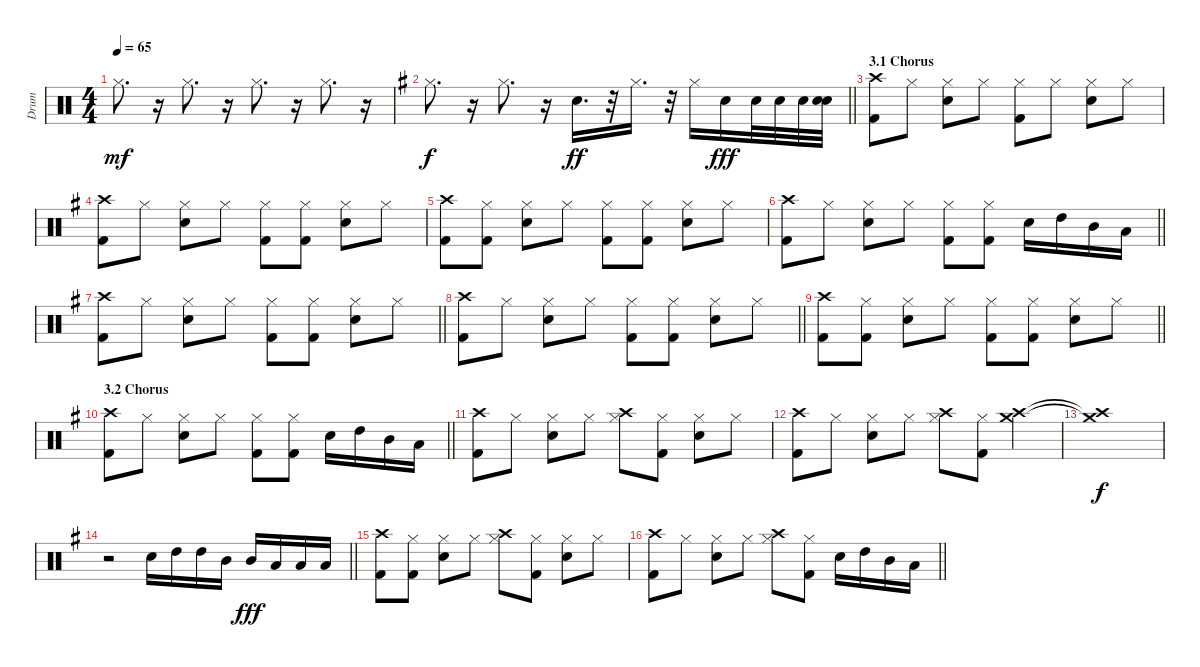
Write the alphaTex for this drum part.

\track ("Drum" "Drum") {instrument percussion}
\staff {score}
\articulation defaults
\ts (4 4)
\tempo 65
\clef neutral
\ks c "Hi-Hat (closed)".8{d dy mf}
r.16 "Hi-Hat (closed)".8{d} r.16 "Hi-Hat (closed)".8{d} r.16 "Hi-Hat (closed)".8{d} r.16 |
\barLineRight lightlight
\ks eminor "Hi-Hat (closed)".8{d dy f}
r.16 "Hi-Hat (closed)".8{d} r.16 "Electric Snare (hit)".16{d dy ff} r.32 "Hi-Hat (closed)".16{d} r.32 "Hi-Hat (closed)".16 "Electric Snare (hit)".16{dy fff} "Snare (hit) 2".32 "Electric Snare (hit)".32 "Snare (hit) 2".32 ("Electric Snare (hit)" "Snare (hit) 2").32 |
\section ("" "3.1 Chorus")
("Crash high (hit)" "Kick (hit) 2").8 "Hi-Hat (closed)".8 ("Electric Snare (hit)" "Hi-Hat (closed)").8 "Hi-Hat (closed)".8 ("Kick (hit) 2" "Hi-Hat (closed)").8 "Hi-Hat (closed)".8 ("Electric Snare (hit)" "Hi-Hat (closed)").8 "Hi-Hat (closed)".8 |
("Crash high (hit)" "Kick (hit) 2").8 "Hi-Hat (closed)".8 ("Electric Snare (hit)" "Hi-Hat (closed)").8 "Hi-Hat (closed)".8 ("Kick (hit) 2" "Hi-Hat (closed)").8 ("Kick (hit) 2" "Hi-Hat (closed)").8 ("Electric Snare (hit)" "Hi-Hat (closed)").8 "Hi-Hat (closed)".8 |
("Crash high (hit)" "Kick (hit) 2").8 ("Kick (hit) 2" "Hi-Hat (closed)").8 ("Electric Snare (hit)" "Hi-Hat (closed)").8 "Hi-Hat (closed)".8 ("Kick (hit) 2" "Hi-Hat (closed)").8 ("Kick (hit) 2" "Hi-Hat (closed)").8 ("Electric Snare (hit)" "Hi-Hat (closed)").8 "Hi-Hat (closed)".8 |
\barLineRight lightlight
("Crash high (hit)" "Kick (hit) 2").8 "Hi-Hat (closed)".8 ("Electric Snare (hit)" "Hi-Hat (closed)").8 "Hi-Hat (closed)".8 ("Kick (hit) 2" "Hi-Hat (closed)").8 ("Kick (hit) 2" "Hi-Hat (closed)").8 "Electric Snare (hit)".16 "High Tom (hit)".16 "Mid Tom (hit)".16 "Low Tom (hit)".16 |
\barLineRight lightlight
("Crash high (hit)" "Kick (hit) 2").8 "Hi-Hat (closed)".8 ("Electric Snare (hit)" "Hi-Hat (closed)").8 "Hi-Hat (closed)".8 ("Kick (hit) 2" "Hi-Hat (closed)").8 ("Kick (hit) 2" "Hi-Hat (closed)").8 ("Electric Snare (hit)" "Hi-Hat (closed)").8 "Hi-Hat (closed)".8 |
\barLineRight lightlight
("Crash high (hit)" "Kick (hit) 2").8 "Hi-Hat (closed)".8 ("Electric Snare (hit)" "Hi-Hat (closed)").8 "Hi-Hat (closed)".8 ("Kick (hit) 2" "Hi-Hat (closed)").8 ("Kick (hit) 2" "Hi-Hat (closed)").8 ("Electric Snare (hit)" "Hi-Hat (closed)").8 "Hi-Hat (closed)".8 |
\barLineRight lightlight
("Crash high (hit)" "Kick (hit) 2").8 ("Kick (hit) 2" "Hi-Hat (closed)").8 ("Electric Snare (hit)" "Hi-Hat (closed)").8 "Hi-Hat (closed)".8 ("Kick (hit) 2" "Hi-Hat (closed)").8 ("Kick (hit) 2" "Hi-Hat (closed)").8 ("Electric Snare (hit)" "Hi-Hat (closed)").8 "Hi-Hat (closed)".8 |
\section ("" "3.2 Chorus")
\barLineRight lightlight
("Crash high (hit)" "Kick (hit) 2").8 "Hi-Hat (closed)".8 ("Electric Snare (hit)" "Hi-Hat (closed)").8 "Hi-Hat (closed)".8 ("Kick (hit) 2" "Hi-Hat (closed)").8 ("Kick (hit) 2" "Hi-Hat (closed)").8 "Electric Snare (hit)".16 "High Tom (hit)".16 "Mid Tom (hit)".16 "Low Tom (hit)".16 |
("Crash high (hit)" "Kick (hit) 2").8 "Hi-Hat (closed)".8 ("Electric Snare (hit)" "Hi-Hat (closed)").8 "Hi-Hat (closed)".8 ("Crash high (hit)" "Hi-Hat (closed)").8 ("Kick (hit) 2" "Hi-Hat (closed)").8 ("Electric Snare (hit)" "Hi-Hat (closed)").8 "Hi-Hat (closed)".8 |
("Crash high (hit)" "Kick (hit) 2").8 "Hi-Hat (closed)".8 ("Electric Snare (hit)" "Hi-Hat (closed)").8 "Hi-Hat (closed)".8 ("Crash high (hit)" "Hi-Hat (closed)").8 ("Kick (hit) 2" "Hi-Hat (closed)").8 ("Crash medium (hit)" "Crash high (hit)").4 |
("Crash medium (hit)"{t} "Crash high (hit)"{t}).1{dy f} |
\barLineRight lightlight
r.2 "Electric Snare (hit)".16 "High Tom (hit)".16 "High Tom (hit)".16 "Mid Tom (hit)".16 "Mid Tom (hit)".16{dy fff} "Low Tom (hit)".16 "Low Tom (hit)".16 "Low Tom (hit)".16 |
("Crash high (hit)" "Kick (hit) 2").8 ("Kick (hit) 2" "Hi-Hat (closed)").8 ("Electric Snare (hit)" "Hi-Hat (closed)").8 "Hi-Hat (closed)".8 ("Crash high (hit)" "Hi-Hat (closed)").8 ("Kick (hit) 2" "Hi-Hat (closed)").8 ("Electric Snare (hit)" "Hi-Hat (closed)").8 "Hi-Hat (closed)".8 |
\barLineRight lightlight
("Crash high (hit)" "Kick (hit) 2").8 "Hi-Hat (closed)".8 ("Electric Snare (hit)" "Hi-Hat (closed)").8 "Hi-Hat (closed)".8 ("Crash high (hit)" "Hi-Hat (closed)").8 ("Kick (hit) 2" "Hi-Hat (closed)").8 "Electric Snare (hit)".16 "High Tom (hit)".16 "Mid Tom (hit)".16 "Low Tom (hit)".16
